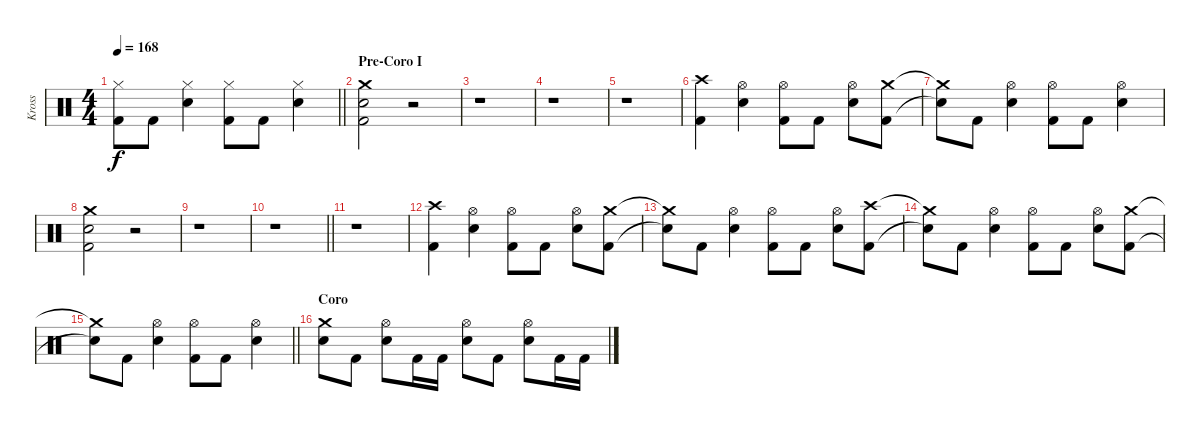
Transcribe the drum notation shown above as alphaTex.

\track ("Kross" "Kross") {instrument percussion}
\staff
\articulation defaults
\ts (4 4)
\tempo 168
\clef neutral
\barLineRight lightlight
\ks c
("Hi-Hat (closed)" "Kick (hit) 2").8{dy f} "Kick (hit) 2".8 ("Hi-Hat (closed)" "Electric Snare (hit)").4 ("Hi-Hat (closed)" "Kick (hit) 2").8 "Kick (hit) 2".8 ("Hi-Hat (closed)" "Electric Snare (hit)").4 |
\section ("" "Pre-Coro I")
("Crash medium (hit)" "Electric Snare (hit)" "Kick (hit) 2").2 r.2{volume 0} |
r.1 |
r.1 |
r.1 |
("Crash high (hit)" "Kick (hit) 2").4{volume 14} ("Hi-Hat (open)" "Electric Snare (hit)").4 ("Hi-Hat (open)" "Kick (hit) 2").8 "Kick (hit) 2".8 ("Hi-Hat (open)" "Electric Snare (hit)").8 ("Crash medium (hit)" "Kick (hit) 2").8 |
("Crash medium (hit)"{t} "Snare (hit)"{t}).8 "Kick (hit) 2".8 ("Hi-Hat (open)" "Electric Snare (hit)").4 ("Hi-Hat (open)" "Kick (hit) 2").8 "Kick (hit) 2".8 ("Hi-Hat (open)" "Electric Snare (hit)").4 |
("Crash medium (hit)" "Electric Snare (hit)" "Kick (hit) 2").2 r.2{volume 0} |
r.1 |
\barLineRight lightlight
r.1 |
r.1 |
("Crash high (hit)" "Kick (hit) 2").4{volume 14} ("Hi-Hat (open)" "Electric Snare (hit)").4 ("Hi-Hat (open)" "Kick (hit) 2").8 "Kick (hit) 2".8 ("Hi-Hat (open)" "Electric Snare (hit)").8 ("Crash medium (hit)" "Kick (hit) 2").8 |
("Crash medium (hit)"{t} "Snare (hit)"{t}).8 "Kick (hit) 2".8 ("Hi-Hat (open)" "Electric Snare (hit)").4 ("Hi-Hat (open)" "Kick (hit) 2").8 "Kick (hit) 2".8 ("Hi-Hat (open)" "Electric Snare (hit)").8 ("Crash high (hit)" "Kick (hit) 2").8 |
("Crash medium (hit)"{t} "Snare (hit)"{t}).8 "Kick (hit) 2".8 ("Hi-Hat (open)" "Electric Snare (hit)").4 ("Hi-Hat (open)" "Kick (hit) 2").8 "Kick (hit) 2".8 ("Hi-Hat (open)" "Electric Snare (hit)").8 ("Crash medium (hit)" "Kick (hit) 2").8 |
\barLineRight lightlight
("Crash medium (hit)"{t} "Snare (hit)"{t}).8 "Kick (hit) 2".8 ("Hi-Hat (open)" "Electric Snare (hit)").4 ("Hi-Hat (open)" "Kick (hit) 2").8 "Kick (hit) 2".8 ("Hi-Hat (open)" "Electric Snare (hit)").4 |
\section ("" "Coro")
("Crash medium (hit)" "Electric Snare (hit)").8 "Kick (hit) 2".8 ("Hi-Hat (open)" "Electric Snare (hit)").8 "Kick (hit) 2".16 "Kick (hit) 2".16 ("Hi-Hat (open)" "Electric Snare (hit)").8 "Kick (hit) 2".8 ("Hi-Hat (open)" "Electric Snare (hit)").8 "Kick (hit) 2".16 "Kick (hit) 2".16
